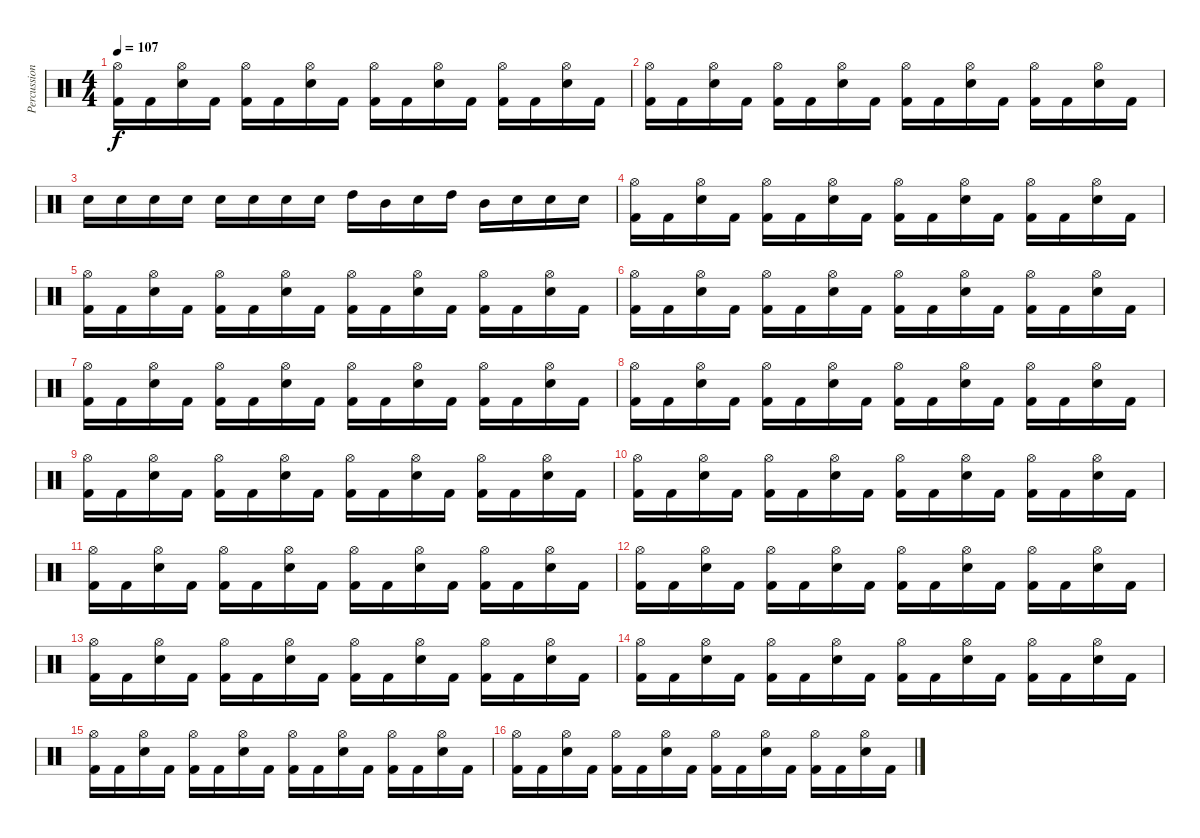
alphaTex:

\track ("Percussion" "Percussion") {instrument percussion}
\staff {score}
\articulation defaults
\ts (4 4)
\tempo 107
\clef neutral
\ks c
("Hi-Hat (open)" "Kick (hit) 2").16{dy f} "Kick (hit) 2".16 ("Hi-Hat (open)" "Electric Snare (hit)").16 "Kick (hit) 2".16 ("Hi-Hat (open)" "Kick (hit) 2").16 "Kick (hit) 2".16 ("Hi-Hat (open)" "Electric Snare (hit)").16 "Kick (hit) 2".16 ("Hi-Hat (open)" "Kick (hit) 2").16 "Kick (hit) 2".16 ("Hi-Hat (open)" "Electric Snare (hit)").16 "Kick (hit) 2".16 ("Hi-Hat (open)" "Kick (hit) 2").16 "Kick (hit) 2".16 ("Hi-Hat (open)" "Electric Snare (hit)").16 "Kick (hit) 2".16 |
("Hi-Hat (open)" "Kick (hit) 2").16 "Kick (hit) 2".16 ("Hi-Hat (open)" "Electric Snare (hit)").16 "Kick (hit) 2".16 ("Hi-Hat (open)" "Kick (hit) 2").16 "Kick (hit) 2".16 ("Hi-Hat (open)" "Electric Snare (hit)").16 "Kick (hit) 2".16 ("Hi-Hat (open)" "Kick (hit) 2").16 "Kick (hit) 2".16 ("Hi-Hat (open)" "Electric Snare (hit)").16 "Kick (hit) 2".16 ("Hi-Hat (open)" "Kick (hit) 2").16 "Kick (hit) 2".16 ("Hi-Hat (open)" "Electric Snare (hit)").16 "Kick (hit) 2".16 |
"Electric Snare (hit)".16 "Electric Snare (hit)".16 "Electric Snare (hit)".16 "Electric Snare (hit)".16 "Electric Snare (hit)".16 "Electric Snare (hit)".16 "Electric Snare (hit)".16 "Electric Snare (hit)".16 "High Tom (hit)".16 "Mid Tom (hit)".16 "Electric Snare (hit)".16 "High Tom (hit)".16 "Mid Tom (hit)".16 "Electric Snare (hit)".16 "Electric Snare (hit)".16 "Electric Snare (hit)".16 |
("Hi-Hat (open)" "Kick (hit) 2").16 "Kick (hit) 2".16 ("Hi-Hat (open)" "Electric Snare (hit)").16 "Kick (hit) 2".16 ("Hi-Hat (open)" "Kick (hit) 2").16 "Kick (hit) 2".16 ("Hi-Hat (open)" "Electric Snare (hit)").16 "Kick (hit) 2".16 ("Hi-Hat (open)" "Kick (hit) 2").16 "Kick (hit) 2".16 ("Hi-Hat (open)" "Electric Snare (hit)").16 "Kick (hit) 2".16 ("Hi-Hat (open)" "Kick (hit) 2").16 "Kick (hit) 2".16 ("Hi-Hat (open)" "Electric Snare (hit)").16 "Kick (hit) 2".16 |
("Hi-Hat (open)" "Kick (hit) 2").16 "Kick (hit) 2".16 ("Hi-Hat (open)" "Electric Snare (hit)").16 "Kick (hit) 2".16 ("Hi-Hat (open)" "Kick (hit) 2").16 "Kick (hit) 2".16 ("Hi-Hat (open)" "Electric Snare (hit)").16 "Kick (hit) 2".16 ("Hi-Hat (open)" "Kick (hit) 2").16 "Kick (hit) 2".16 ("Hi-Hat (open)" "Electric Snare (hit)").16 "Kick (hit) 2".16 ("Hi-Hat (open)" "Kick (hit) 2").16 "Kick (hit) 2".16 ("Hi-Hat (open)" "Electric Snare (hit)").16 "Kick (hit) 2".16 |
("Hi-Hat (open)" "Kick (hit) 2").16 "Kick (hit) 2".16 ("Hi-Hat (open)" "Electric Snare (hit)").16 "Kick (hit) 2".16 ("Hi-Hat (open)" "Kick (hit) 2").16 "Kick (hit) 2".16 ("Hi-Hat (open)" "Electric Snare (hit)").16 "Kick (hit) 2".16 ("Hi-Hat (open)" "Kick (hit) 2").16 "Kick (hit) 2".16 ("Hi-Hat (open)" "Electric Snare (hit)").16 "Kick (hit) 2".16 ("Hi-Hat (open)" "Kick (hit) 2").16 "Kick (hit) 2".16 ("Hi-Hat (open)" "Electric Snare (hit)").16 "Kick (hit) 2".16 |
("Hi-Hat (open)" "Kick (hit) 2").16 "Kick (hit) 2".16 ("Hi-Hat (open)" "Electric Snare (hit)").16 "Kick (hit) 2".16 ("Hi-Hat (open)" "Kick (hit) 2").16 "Kick (hit) 2".16 ("Hi-Hat (open)" "Electric Snare (hit)").16 "Kick (hit) 2".16 ("Hi-Hat (open)" "Kick (hit) 2").16 "Kick (hit) 2".16 ("Hi-Hat (open)" "Electric Snare (hit)").16 "Kick (hit) 2".16 ("Hi-Hat (open)" "Kick (hit) 2").16 "Kick (hit) 2".16 ("Hi-Hat (open)" "Electric Snare (hit)").16 "Kick (hit) 2".16 |
("Hi-Hat (open)" "Kick (hit) 2").16 "Kick (hit) 2".16 ("Hi-Hat (open)" "Electric Snare (hit)").16 "Kick (hit) 2".16 ("Hi-Hat (open)" "Kick (hit) 2").16 "Kick (hit) 2".16 ("Hi-Hat (open)" "Electric Snare (hit)").16 "Kick (hit) 2".16 ("Hi-Hat (open)" "Kick (hit) 2").16 "Kick (hit) 2".16 ("Hi-Hat (open)" "Electric Snare (hit)").16 "Kick (hit) 2".16 ("Hi-Hat (open)" "Kick (hit) 2").16 "Kick (hit) 2".16 ("Hi-Hat (open)" "Electric Snare (hit)").16 "Kick (hit) 2".16 |
("Hi-Hat (open)" "Kick (hit) 2").16 "Kick (hit) 2".16 ("Hi-Hat (open)" "Electric Snare (hit)").16 "Kick (hit) 2".16 ("Hi-Hat (open)" "Kick (hit) 2").16 "Kick (hit) 2".16 ("Hi-Hat (open)" "Electric Snare (hit)").16 "Kick (hit) 2".16 ("Hi-Hat (open)" "Kick (hit) 2").16 "Kick (hit) 2".16 ("Hi-Hat (open)" "Electric Snare (hit)").16 "Kick (hit) 2".16 ("Hi-Hat (open)" "Kick (hit) 2").16 "Kick (hit) 2".16 ("Hi-Hat (open)" "Electric Snare (hit)").16 "Kick (hit) 2".16 |
("Hi-Hat (open)" "Kick (hit) 2").16 "Kick (hit) 2".16 ("Hi-Hat (open)" "Electric Snare (hit)").16 "Kick (hit) 2".16 ("Hi-Hat (open)" "Kick (hit) 2").16 "Kick (hit) 2".16 ("Hi-Hat (open)" "Electric Snare (hit)").16 "Kick (hit) 2".16 ("Hi-Hat (open)" "Kick (hit) 2").16 "Kick (hit) 2".16 ("Hi-Hat (open)" "Electric Snare (hit)").16 "Kick (hit) 2".16 ("Hi-Hat (open)" "Kick (hit) 2").16 "Kick (hit) 2".16 ("Hi-Hat (open)" "Electric Snare (hit)").16 "Kick (hit) 2".16 |
("Hi-Hat (open)" "Kick (hit) 2").16 "Kick (hit) 2".16 ("Hi-Hat (open)" "Electric Snare (hit)").16 "Kick (hit) 2".16 ("Hi-Hat (open)" "Kick (hit) 2").16 "Kick (hit) 2".16 ("Hi-Hat (open)" "Electric Snare (hit)").16 "Kick (hit) 2".16 ("Hi-Hat (open)" "Kick (hit) 2").16 "Kick (hit) 2".16 ("Hi-Hat (open)" "Electric Snare (hit)").16 "Kick (hit) 2".16 ("Hi-Hat (open)" "Kick (hit) 2").16 "Kick (hit) 2".16 ("Hi-Hat (open)" "Electric Snare (hit)").16 "Kick (hit) 2".16 |
("Hi-Hat (open)" "Kick (hit) 2").16 "Kick (hit) 2".16 ("Hi-Hat (open)" "Electric Snare (hit)").16 "Kick (hit) 2".16 ("Hi-Hat (open)" "Kick (hit) 2").16 "Kick (hit) 2".16 ("Hi-Hat (open)" "Electric Snare (hit)").16 "Kick (hit) 2".16 ("Hi-Hat (open)" "Kick (hit) 2").16 "Kick (hit) 2".16 ("Hi-Hat (open)" "Electric Snare (hit)").16 "Kick (hit) 2".16 ("Hi-Hat (open)" "Kick (hit) 2").16 "Kick (hit) 2".16 ("Hi-Hat (open)" "Electric Snare (hit)").16 "Kick (hit) 2".16 |
("Hi-Hat (open)" "Kick (hit) 2").16 "Kick (hit) 2".16 ("Hi-Hat (open)" "Electric Snare (hit)").16 "Kick (hit) 2".16 ("Hi-Hat (open)" "Kick (hit) 2").16 "Kick (hit) 2".16 ("Hi-Hat (open)" "Electric Snare (hit)").16 "Kick (hit) 2".16 ("Hi-Hat (open)" "Kick (hit) 2").16 "Kick (hit) 2".16 ("Hi-Hat (open)" "Electric Snare (hit)").16 "Kick (hit) 2".16 ("Hi-Hat (open)" "Kick (hit) 2").16 "Kick (hit) 2".16 ("Hi-Hat (open)" "Electric Snare (hit)").16 "Kick (hit) 2".16 |
("Hi-Hat (open)" "Kick (hit) 2").16 "Kick (hit) 2".16 ("Hi-Hat (open)" "Electric Snare (hit)").16 "Kick (hit) 2".16 ("Hi-Hat (open)" "Kick (hit) 2").16 "Kick (hit) 2".16 ("Hi-Hat (open)" "Electric Snare (hit)").16 "Kick (hit) 2".16 ("Hi-Hat (open)" "Kick (hit) 2").16 "Kick (hit) 2".16 ("Hi-Hat (open)" "Electric Snare (hit)").16 "Kick (hit) 2".16 ("Hi-Hat (open)" "Kick (hit) 2").16 "Kick (hit) 2".16 ("Hi-Hat (open)" "Electric Snare (hit)").16 "Kick (hit) 2".16 |
("Hi-Hat (open)" "Kick (hit) 2").16 "Kick (hit) 2".16 ("Hi-Hat (open)" "Electric Snare (hit)").16 "Kick (hit) 2".16 ("Hi-Hat (open)" "Kick (hit) 2").16 "Kick (hit) 2".16 ("Hi-Hat (open)" "Electric Snare (hit)").16 "Kick (hit) 2".16 ("Hi-Hat (open)" "Kick (hit) 2").16 "Kick (hit) 2".16 ("Hi-Hat (open)" "Electric Snare (hit)").16 "Kick (hit) 2".16 ("Hi-Hat (open)" "Kick (hit) 2").16 "Kick (hit) 2".16 ("Hi-Hat (open)" "Electric Snare (hit)").16 "Kick (hit) 2".16 |
("Hi-Hat (open)" "Kick (hit) 2").16 "Kick (hit) 2".16 ("Hi-Hat (open)" "Electric Snare (hit)").16 "Kick (hit) 2".16 ("Hi-Hat (open)" "Kick (hit) 2").16 "Kick (hit) 2".16 ("Hi-Hat (open)" "Electric Snare (hit)").16 "Kick (hit) 2".16 ("Hi-Hat (open)" "Kick (hit) 2").16 "Kick (hit) 2".16 ("Hi-Hat (open)" "Electric Snare (hit)").16 "Kick (hit) 2".16 ("Hi-Hat (open)" "Kick (hit) 2").16 "Kick (hit) 2".16 ("Hi-Hat (open)" "Electric Snare (hit)").16 "Kick (hit) 2".16
